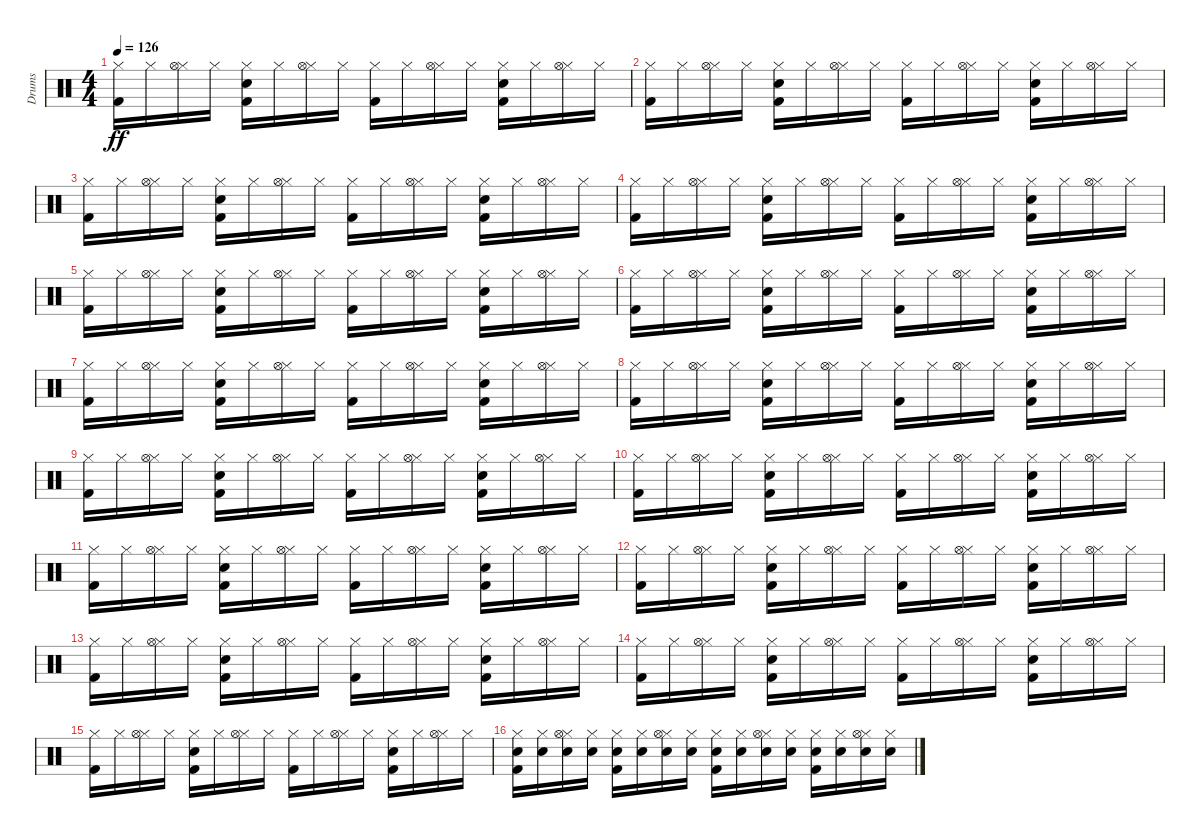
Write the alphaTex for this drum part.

\track ("Drums" "Drums") {instrument percussion}
\staff {score}
\articulation defaults
\ts (4 4)
\tempo 126
\clef neutral
\ks c
("Kick (hit) 2" "Hi-Hat (closed)").16{dy ff} "Hi-Hat (closed)".16 ("Hi-Hat (closed)" "Hi-Hat (open)").16 "Hi-Hat (closed)".16 ("Kick (hit) 2" "Electric Snare (hit)" "Hi-Hat (closed)").16 "Hi-Hat (closed)".16 ("Hi-Hat (closed)" "Hi-Hat (open)").16 "Hi-Hat (closed)".16 ("Kick (hit) 2" "Hi-Hat (closed)").16 "Hi-Hat (closed)".16 ("Hi-Hat (closed)" "Hi-Hat (open)").16 "Hi-Hat (closed)".16 ("Kick (hit) 2" "Electric Snare (hit)" "Hi-Hat (closed)").16 "Hi-Hat (closed)".16 ("Hi-Hat (closed)" "Hi-Hat (open)").16 "Hi-Hat (closed)".16 |
("Kick (hit) 2" "Hi-Hat (closed)").16 "Hi-Hat (closed)".16 ("Hi-Hat (closed)" "Hi-Hat (open)").16 "Hi-Hat (closed)".16 ("Kick (hit) 2" "Electric Snare (hit)" "Hi-Hat (closed)").16 "Hi-Hat (closed)".16 ("Hi-Hat (closed)" "Hi-Hat (open)").16 "Hi-Hat (closed)".16 ("Kick (hit) 2" "Hi-Hat (closed)").16 "Hi-Hat (closed)".16 ("Hi-Hat (closed)" "Hi-Hat (open)").16 "Hi-Hat (closed)".16 ("Kick (hit) 2" "Electric Snare (hit)" "Hi-Hat (closed)").16 "Hi-Hat (closed)".16 ("Hi-Hat (closed)" "Hi-Hat (open)").16 "Hi-Hat (closed)".16 |
("Kick (hit) 2" "Hi-Hat (closed)").16 "Hi-Hat (closed)".16 ("Hi-Hat (closed)" "Hi-Hat (open)").16 "Hi-Hat (closed)".16 ("Kick (hit) 2" "Electric Snare (hit)" "Hi-Hat (closed)").16 "Hi-Hat (closed)".16 ("Hi-Hat (closed)" "Hi-Hat (open)").16 "Hi-Hat (closed)".16 ("Kick (hit) 2" "Hi-Hat (closed)").16 "Hi-Hat (closed)".16 ("Hi-Hat (closed)" "Hi-Hat (open)").16 "Hi-Hat (closed)".16 ("Kick (hit) 2" "Electric Snare (hit)" "Hi-Hat (closed)").16 "Hi-Hat (closed)".16 ("Hi-Hat (closed)" "Hi-Hat (open)").16 "Hi-Hat (closed)".16 |
("Kick (hit) 2" "Hi-Hat (closed)").16 "Hi-Hat (closed)".16 ("Hi-Hat (closed)" "Hi-Hat (open)").16 "Hi-Hat (closed)".16 ("Kick (hit) 2" "Electric Snare (hit)" "Hi-Hat (closed)").16 "Hi-Hat (closed)".16 ("Hi-Hat (closed)" "Hi-Hat (open)").16 "Hi-Hat (closed)".16 ("Kick (hit) 2" "Hi-Hat (closed)").16 "Hi-Hat (closed)".16 ("Hi-Hat (closed)" "Hi-Hat (open)").16 "Hi-Hat (closed)".16 ("Kick (hit) 2" "Electric Snare (hit)" "Hi-Hat (closed)").16 "Hi-Hat (closed)".16 ("Hi-Hat (closed)" "Hi-Hat (open)").16 "Hi-Hat (closed)".16 |
("Kick (hit) 2" "Hi-Hat (closed)").16 "Hi-Hat (closed)".16 ("Hi-Hat (closed)" "Hi-Hat (open)").16 "Hi-Hat (closed)".16 ("Kick (hit) 2" "Electric Snare (hit)" "Hi-Hat (closed)").16 "Hi-Hat (closed)".16 ("Hi-Hat (closed)" "Hi-Hat (open)").16 "Hi-Hat (closed)".16 ("Kick (hit) 2" "Hi-Hat (closed)").16 "Hi-Hat (closed)".16 ("Hi-Hat (closed)" "Hi-Hat (open)").16 "Hi-Hat (closed)".16 ("Kick (hit) 2" "Electric Snare (hit)" "Hi-Hat (closed)").16 "Hi-Hat (closed)".16 ("Hi-Hat (closed)" "Hi-Hat (open)").16 "Hi-Hat (closed)".16 |
("Kick (hit) 2" "Hi-Hat (closed)").16 "Hi-Hat (closed)".16 ("Hi-Hat (closed)" "Hi-Hat (open)").16 "Hi-Hat (closed)".16 ("Kick (hit) 2" "Electric Snare (hit)" "Hi-Hat (closed)").16 "Hi-Hat (closed)".16 ("Hi-Hat (closed)" "Hi-Hat (open)").16 "Hi-Hat (closed)".16 ("Kick (hit) 2" "Hi-Hat (closed)").16 "Hi-Hat (closed)".16 ("Hi-Hat (closed)" "Hi-Hat (open)").16 "Hi-Hat (closed)".16 ("Kick (hit) 2" "Electric Snare (hit)" "Hi-Hat (closed)").16 "Hi-Hat (closed)".16 ("Hi-Hat (closed)" "Hi-Hat (open)").16 "Hi-Hat (closed)".16 |
("Kick (hit) 2" "Hi-Hat (closed)").16 "Hi-Hat (closed)".16 ("Hi-Hat (closed)" "Hi-Hat (open)").16 "Hi-Hat (closed)".16 ("Kick (hit) 2" "Electric Snare (hit)" "Hi-Hat (closed)").16 "Hi-Hat (closed)".16 ("Hi-Hat (closed)" "Hi-Hat (open)").16 "Hi-Hat (closed)".16 ("Kick (hit) 2" "Hi-Hat (closed)").16 "Hi-Hat (closed)".16 ("Hi-Hat (closed)" "Hi-Hat (open)").16 "Hi-Hat (closed)".16 ("Kick (hit) 2" "Electric Snare (hit)" "Hi-Hat (closed)").16 "Hi-Hat (closed)".16 ("Hi-Hat (closed)" "Hi-Hat (open)").16 "Hi-Hat (closed)".16 |
("Kick (hit) 2" "Hi-Hat (closed)").16 "Hi-Hat (closed)".16 ("Hi-Hat (closed)" "Hi-Hat (open)").16 "Hi-Hat (closed)".16 ("Kick (hit) 2" "Electric Snare (hit)" "Hi-Hat (closed)").16 "Hi-Hat (closed)".16 ("Hi-Hat (closed)" "Hi-Hat (open)").16 "Hi-Hat (closed)".16 ("Kick (hit) 2" "Hi-Hat (closed)").16 "Hi-Hat (closed)".16 ("Hi-Hat (closed)" "Hi-Hat (open)").16 "Hi-Hat (closed)".16 ("Kick (hit) 2" "Electric Snare (hit)" "Hi-Hat (closed)").16 "Hi-Hat (closed)".16 ("Hi-Hat (closed)" "Hi-Hat (open)").16 "Hi-Hat (closed)".16 |
("Kick (hit) 2" "Hi-Hat (closed)").16 "Hi-Hat (closed)".16 ("Hi-Hat (closed)" "Hi-Hat (open)").16 "Hi-Hat (closed)".16 ("Kick (hit) 2" "Electric Snare (hit)" "Hi-Hat (closed)").16 "Hi-Hat (closed)".16 ("Hi-Hat (closed)" "Hi-Hat (open)").16 "Hi-Hat (closed)".16 ("Kick (hit) 2" "Hi-Hat (closed)").16 "Hi-Hat (closed)".16 ("Hi-Hat (closed)" "Hi-Hat (open)").16 "Hi-Hat (closed)".16 ("Kick (hit) 2" "Electric Snare (hit)" "Hi-Hat (closed)").16 "Hi-Hat (closed)".16 ("Hi-Hat (closed)" "Hi-Hat (open)").16 "Hi-Hat (closed)".16 |
("Kick (hit) 2" "Hi-Hat (closed)").16 "Hi-Hat (closed)".16 ("Hi-Hat (closed)" "Hi-Hat (open)").16 "Hi-Hat (closed)".16 ("Kick (hit) 2" "Electric Snare (hit)" "Hi-Hat (closed)").16 "Hi-Hat (closed)".16 ("Hi-Hat (closed)" "Hi-Hat (open)").16 "Hi-Hat (closed)".16 ("Kick (hit) 2" "Hi-Hat (closed)").16 "Hi-Hat (closed)".16 ("Hi-Hat (closed)" "Hi-Hat (open)").16 "Hi-Hat (closed)".16 ("Kick (hit) 2" "Electric Snare (hit)" "Hi-Hat (closed)").16 "Hi-Hat (closed)".16 ("Hi-Hat (closed)" "Hi-Hat (open)").16 "Hi-Hat (closed)".16 |
("Kick (hit) 2" "Hi-Hat (closed)").16 "Hi-Hat (closed)".16 ("Hi-Hat (closed)" "Hi-Hat (open)").16 "Hi-Hat (closed)".16 ("Kick (hit) 2" "Electric Snare (hit)" "Hi-Hat (closed)").16 "Hi-Hat (closed)".16 ("Hi-Hat (closed)" "Hi-Hat (open)").16 "Hi-Hat (closed)".16 ("Kick (hit) 2" "Hi-Hat (closed)").16 "Hi-Hat (closed)".16 ("Hi-Hat (closed)" "Hi-Hat (open)").16 "Hi-Hat (closed)".16 ("Kick (hit) 2" "Electric Snare (hit)" "Hi-Hat (closed)").16 "Hi-Hat (closed)".16 ("Hi-Hat (closed)" "Hi-Hat (open)").16 "Hi-Hat (closed)".16 |
("Kick (hit) 2" "Hi-Hat (closed)").16 "Hi-Hat (closed)".16 ("Hi-Hat (closed)" "Hi-Hat (open)").16 "Hi-Hat (closed)".16 ("Kick (hit) 2" "Electric Snare (hit)" "Hi-Hat (closed)").16 "Hi-Hat (closed)".16 ("Hi-Hat (closed)" "Hi-Hat (open)").16 "Hi-Hat (closed)".16 ("Kick (hit) 2" "Hi-Hat (closed)").16 "Hi-Hat (closed)".16 ("Hi-Hat (closed)" "Hi-Hat (open)").16 "Hi-Hat (closed)".16 ("Kick (hit) 2" "Electric Snare (hit)" "Hi-Hat (closed)").16 "Hi-Hat (closed)".16 ("Hi-Hat (closed)" "Hi-Hat (open)").16 "Hi-Hat (closed)".16 |
("Kick (hit) 2" "Hi-Hat (closed)").16 "Hi-Hat (closed)".16 ("Hi-Hat (closed)" "Hi-Hat (open)").16 "Hi-Hat (closed)".16 ("Kick (hit) 2" "Electric Snare (hit)" "Hi-Hat (closed)").16 "Hi-Hat (closed)".16 ("Hi-Hat (closed)" "Hi-Hat (open)").16 "Hi-Hat (closed)".16 ("Kick (hit) 2" "Hi-Hat (closed)").16 "Hi-Hat (closed)".16 ("Hi-Hat (closed)" "Hi-Hat (open)").16 "Hi-Hat (closed)".16 ("Kick (hit) 2" "Electric Snare (hit)" "Hi-Hat (closed)").16 "Hi-Hat (closed)".16 ("Hi-Hat (closed)" "Hi-Hat (open)").16 "Hi-Hat (closed)".16 |
("Kick (hit) 2" "Hi-Hat (closed)").16 "Hi-Hat (closed)".16 ("Hi-Hat (closed)" "Hi-Hat (open)").16 "Hi-Hat (closed)".16 ("Kick (hit) 2" "Electric Snare (hit)" "Hi-Hat (closed)").16 "Hi-Hat (closed)".16 ("Hi-Hat (closed)" "Hi-Hat (open)").16 "Hi-Hat (closed)".16 ("Kick (hit) 2" "Hi-Hat (closed)").16 "Hi-Hat (closed)".16 ("Hi-Hat (closed)" "Hi-Hat (open)").16 "Hi-Hat (closed)".16 ("Kick (hit) 2" "Electric Snare (hit)" "Hi-Hat (closed)").16 "Hi-Hat (closed)".16 ("Hi-Hat (closed)" "Hi-Hat (open)").16 "Hi-Hat (closed)".16 |
("Kick (hit) 2" "Hi-Hat (closed)").16 "Hi-Hat (closed)".16 ("Hi-Hat (closed)" "Hi-Hat (open)").16 "Hi-Hat (closed)".16 ("Kick (hit) 2" "Electric Snare (hit)" "Hi-Hat (closed)").16 "Hi-Hat (closed)".16 ("Hi-Hat (closed)" "Hi-Hat (open)").16 "Hi-Hat (closed)".16 ("Kick (hit) 2" "Hi-Hat (closed)").16 "Hi-Hat (closed)".16 ("Hi-Hat (closed)" "Hi-Hat (open)").16 "Hi-Hat (closed)".16 ("Kick (hit) 2" "Electric Snare (hit)" "Hi-Hat (closed)").16 "Hi-Hat (closed)".16 ("Hi-Hat (closed)" "Hi-Hat (open)").16 "Hi-Hat (closed)".16 |
("Kick (hit) 2" "Electric Snare (hit)" "Hi-Hat (closed)").16 ("Electric Snare (hit)" "Hi-Hat (closed)").16 ("Electric Snare (hit)" "Hi-Hat (closed)" "Hi-Hat (open)").16 ("Electric Snare (hit)" "Hi-Hat (closed)").16 ("Kick (hit) 2" "Electric Snare (hit)" "Hi-Hat (closed)").16 ("Electric Snare (hit)" "Hi-Hat (closed)").16 ("Electric Snare (hit)" "Hi-Hat (closed)" "Hi-Hat (open)").16 ("Electric Snare (hit)" "Hi-Hat (closed)").16 ("Kick (hit) 2" "Electric Snare (hit)" "Hi-Hat (closed)").16 ("Electric Snare (hit)" "Hi-Hat (closed)").16 ("Electric Snare (hit)" "Hi-Hat (closed)" "Hi-Hat (open)").16 ("Electric Snare (hit)" "Hi-Hat (closed)").16 ("Kick (hit) 2" "Electric Snare (hit)" "Hi-Hat (closed)").16 ("Electric Snare (hit)" "Hi-Hat (closed)").16 ("Electric Snare (hit)" "Hi-Hat (closed)" "Hi-Hat (open)").16 ("Electric Snare (hit)" "Hi-Hat (closed)").16
